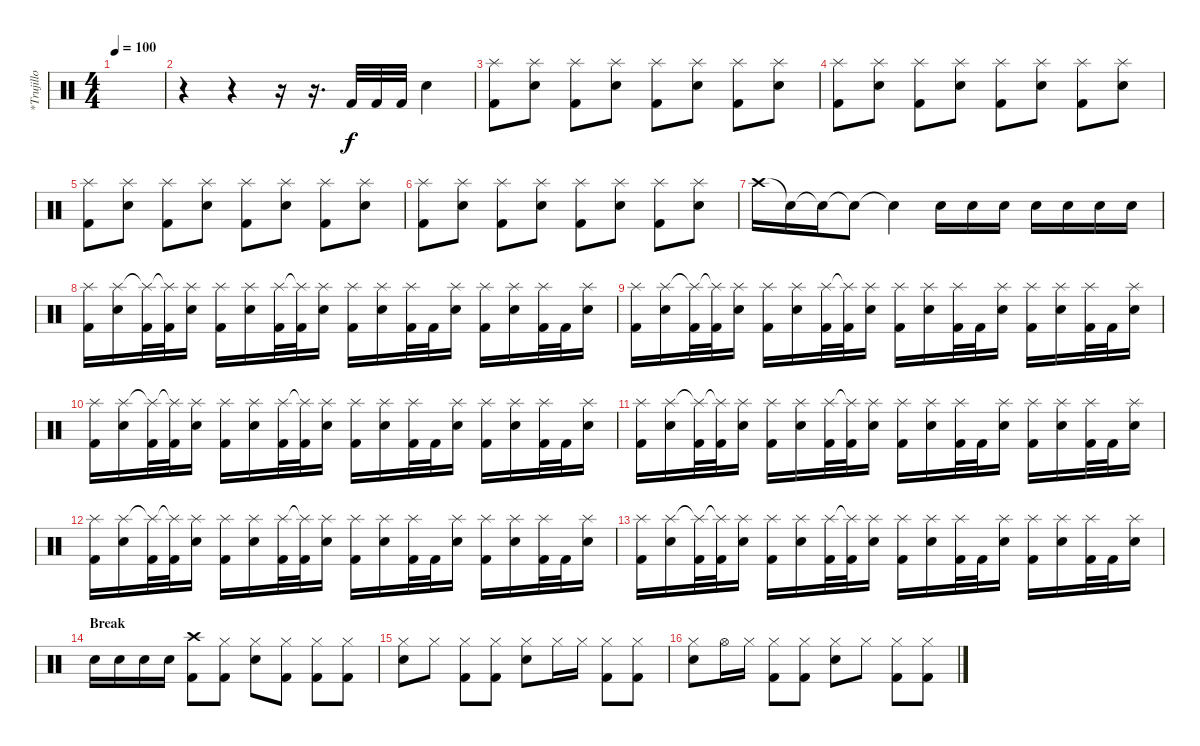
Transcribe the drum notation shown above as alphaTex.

\track ("*Trujillo" "*Trujillo") {instrument percussion}
\staff {score}
\articulation defaults
\ts (4 4)
\tempo 100
\clef neutral
\ks c
|
r.4 r.4 r.16 r.16{d} "Kick (hit) 2".32 "Kick (hit) 2".32 "Kick (hit) 2".32 "Electric Snare (hit)".4 |
("Splash (hit)" "Kick (hit) 2").8 ("Splash (hit)" "Electric Snare (hit)").8 ("Splash (hit)" "Kick (hit) 2").8 ("Splash (hit)" "Electric Snare (hit)").8 ("Splash (hit)" "Kick (hit) 2").8 ("Splash (hit)" "Electric Snare (hit)").8 ("Splash (hit)" "Kick (hit) 2").8 ("Splash (hit)" "Electric Snare (hit)").8 |
("Splash (hit)" "Kick (hit) 2").8 ("Splash (hit)" "Electric Snare (hit)").8 ("Splash (hit)" "Kick (hit) 2").8 ("Splash (hit)" "Electric Snare (hit)").8 ("Splash (hit)" "Kick (hit) 2").8 ("Splash (hit)" "Electric Snare (hit)").8 ("Splash (hit)" "Kick (hit) 2").8 ("Splash (hit)" "Electric Snare (hit)").8 |
("Splash (hit)" "Kick (hit) 2").8 ("Splash (hit)" "Electric Snare (hit)").8 ("Splash (hit)" "Kick (hit) 2").8 ("Splash (hit)" "Electric Snare (hit)").8 ("Splash (hit)" "Kick (hit) 2").8 ("Splash (hit)" "Electric Snare (hit)").8 ("Splash (hit)" "Kick (hit) 2").8 ("Splash (hit)" "Electric Snare (hit)").8 |
("Splash (hit)" "Kick (hit) 2").8 ("Splash (hit)" "Electric Snare (hit)").8 ("Splash (hit)" "Kick (hit) 2").8 ("Splash (hit)" "Electric Snare (hit)").8 ("Splash (hit)" "Kick (hit) 2").8 ("Splash (hit)" "Electric Snare (hit)").8 ("Splash (hit)" "Kick (hit) 2").8 ("Splash (hit)" "Electric Snare (hit)").8 |
"Crash high (hit)".16 "Snare (hit)"{t}.16 "Snare (hit)"{t}.16 "Snare (hit)"{t}.8 "Snare (hit)"{t}.4 "Electric Snare (hit)".16 "Electric Snare (hit)".16 "Electric Snare (hit)".16 "Electric Snare (hit)".16 "Electric Snare (hit)".16 "Electric Snare (hit)".16 "Electric Snare (hit)".16 |
("Splash (hit)" "Kick (hit) 2").16 ("Splash (hit)" "Electric Snare (hit)").16 ("Splash (hit)"{t} "Kick (hit) 2").32 ("Splash (hit)"{t} "Kick (hit) 2").32 ("Splash (hit)" "Electric Snare (hit)").16 ("Splash (hit)" "Kick (hit) 2").16 ("Splash (hit)" "Electric Snare (hit)").16 ("Splash (hit)" "Kick (hit) 2").32 ("Splash (hit)"{t} "Kick (hit) 2").32 ("Splash (hit)" "Electric Snare (hit)").16 ("Splash (hit)" "Kick (hit) 2").16 ("Splash (hit)" "Electric Snare (hit)").16 ("Splash (hit)" "Kick (hit) 2").32 "Kick (hit) 2".32 ("Splash (hit)" "Electric Snare (hit)").16 ("Kick (hit) 2" "Splash (hit)").16 ("Splash (hit)" "Electric Snare (hit)").16 ("Splash (hit)" "Kick (hit) 2").32 "Kick (hit) 2".32 ("Splash (hit)" "Electric Snare (hit)").16 |
("Splash (hit)" "Kick (hit) 2").16 ("Splash (hit)" "Electric Snare (hit)").16 ("Splash (hit)"{t} "Kick (hit) 2").32 ("Splash (hit)"{t} "Kick (hit) 2").32 ("Splash (hit)" "Electric Snare (hit)").16 ("Splash (hit)" "Kick (hit) 2").16 ("Splash (hit)" "Electric Snare (hit)").16 ("Splash (hit)" "Kick (hit) 2").32 ("Splash (hit)"{t} "Kick (hit) 2").32 ("Splash (hit)" "Electric Snare (hit)").16 ("Splash (hit)" "Kick (hit) 2").16 ("Splash (hit)" "Electric Snare (hit)").16 ("Splash (hit)" "Kick (hit) 2").32 "Kick (hit) 2".32 ("Splash (hit)" "Electric Snare (hit)").16 ("Kick (hit) 2" "Splash (hit)").16 ("Splash (hit)" "Electric Snare (hit)").16 ("Splash (hit)" "Kick (hit) 2").32 "Kick (hit) 2".32 ("Splash (hit)" "Electric Snare (hit)").16 |
("Splash (hit)" "Kick (hit) 2").16 ("Splash (hit)" "Electric Snare (hit)").16 ("Splash (hit)"{t} "Kick (hit) 2").32 ("Splash (hit)"{t} "Kick (hit) 2").32 ("Splash (hit)" "Electric Snare (hit)").16 ("Splash (hit)" "Kick (hit) 2").16 ("Splash (hit)" "Electric Snare (hit)").16 ("Splash (hit)" "Kick (hit) 2").32 ("Splash (hit)"{t} "Kick (hit) 2").32 ("Splash (hit)" "Electric Snare (hit)").16 ("Splash (hit)" "Kick (hit) 2").16 ("Splash (hit)" "Electric Snare (hit)").16 ("Splash (hit)" "Kick (hit) 2").32 "Kick (hit) 2".32 ("Splash (hit)" "Electric Snare (hit)").16 ("Kick (hit) 2" "Splash (hit)").16 ("Splash (hit)" "Electric Snare (hit)").16 ("Splash (hit)" "Kick (hit) 2").32 "Kick (hit) 2".32 ("Splash (hit)" "Electric Snare (hit)").16 |
("Splash (hit)" "Kick (hit) 2").16 ("Splash (hit)" "Electric Snare (hit)").16 ("Splash (hit)"{t} "Kick (hit) 2").32 ("Splash (hit)"{t} "Kick (hit) 2").32 ("Splash (hit)" "Electric Snare (hit)").16 ("Splash (hit)" "Kick (hit) 2").16 ("Splash (hit)" "Electric Snare (hit)").16 ("Splash (hit)" "Kick (hit) 2").32 ("Splash (hit)"{t} "Kick (hit) 2").32 ("Splash (hit)" "Electric Snare (hit)").16 ("Splash (hit)" "Kick (hit) 2").16 ("Splash (hit)" "Electric Snare (hit)").16 ("Splash (hit)" "Kick (hit) 2").32 "Kick (hit) 2".32 ("Splash (hit)" "Electric Snare (hit)").16 ("Kick (hit) 2" "Splash (hit)").16 ("Splash (hit)" "Electric Snare (hit)").16 ("Splash (hit)" "Kick (hit) 2").32 "Kick (hit) 2".32 ("Splash (hit)" "Electric Snare (hit)").16 |
("Splash (hit)" "Kick (hit) 2").16 ("Splash (hit)" "Electric Snare (hit)").16 ("Splash (hit)"{t} "Kick (hit) 2").32 ("Splash (hit)"{t} "Kick (hit) 2").32 ("Splash (hit)" "Electric Snare (hit)").16 ("Splash (hit)" "Kick (hit) 2").16 ("Splash (hit)" "Electric Snare (hit)").16 ("Splash (hit)" "Kick (hit) 2").32 ("Splash (hit)"{t} "Kick (hit) 2").32 ("Splash (hit)" "Electric Snare (hit)").16 ("Splash (hit)" "Kick (hit) 2").16 ("Splash (hit)" "Electric Snare (hit)").16 ("Splash (hit)" "Kick (hit) 2").32 "Kick (hit) 2".32 ("Splash (hit)" "Electric Snare (hit)").16 ("Kick (hit) 2" "Splash (hit)").16 ("Splash (hit)" "Electric Snare (hit)").16 ("Splash (hit)" "Kick (hit) 2").32 "Kick (hit) 2".32 ("Splash (hit)" "Electric Snare (hit)").16 |
("Splash (hit)" "Kick (hit) 2").16 ("Splash (hit)" "Electric Snare (hit)").16 ("Splash (hit)"{t} "Kick (hit) 2").32 ("Splash (hit)"{t} "Kick (hit) 2").32 ("Splash (hit)" "Electric Snare (hit)").16 ("Splash (hit)" "Kick (hit) 2").16 ("Splash (hit)" "Electric Snare (hit)").16 ("Splash (hit)" "Kick (hit) 2").32 ("Splash (hit)"{t} "Kick (hit) 2").32 ("Splash (hit)" "Electric Snare (hit)").16 ("Splash (hit)" "Kick (hit) 2").16 ("Splash (hit)" "Electric Snare (hit)").16 ("Splash (hit)" "Kick (hit) 2").32 "Kick (hit) 2".32 ("Splash (hit)" "Electric Snare (hit)").16 ("Kick (hit) 2" "Splash (hit)").16 ("Splash (hit)" "Electric Snare (hit)").16 ("Splash (hit)" "Kick (hit) 2").32 "Kick (hit) 2".32 ("Splash (hit)" "Electric Snare (hit)").16 |
\section ("" "Break")
"Electric Snare (hit)".16 "Electric Snare (hit)".16 "Electric Snare (hit)".16 "Electric Snare (hit)".16 ("Crash high (hit)" "Kick (hit) 2").8 ("Hi-Hat (closed)" "Kick (hit) 2").8 ("Hi-Hat (closed)" "Electric Snare (hit)").8 ("Hi-Hat (closed)" "Kick (hit) 2"{x}).8 ("Hi-Hat (closed)" "Kick (hit) 2").8 ("Hi-Hat (closed)" "Kick (hit) 2").8 |
("Hi-Hat (closed)" "Electric Snare (hit)").8 "Hi-Hat (closed)".8 ("Hi-Hat (closed)" "Kick (hit) 2").8 ("Hi-Hat (closed)" "Kick (hit) 2").8 ("Hi-Hat (closed)" "Electric Snare (hit)").8 "Hi-Hat (closed)".16 "Hi-Hat (closed)".16 ("Hi-Hat (closed)" "Kick (hit) 2").8 ("Hi-Hat (closed)" "Kick (hit) 2").8 |
("Hi-Hat (closed)" "Electric Snare (hit)").8 "Hi-Hat (open)".16 "Hi-Hat (closed)".16 ("Hi-Hat (closed)" "Kick (hit) 2").8 ("Hi-Hat (closed)" "Kick (hit) 2").8 ("Hi-Hat (closed)" "Electric Snare (hit)").8 "Hi-Hat (closed)".8 ("Hi-Hat (closed)" "Kick (hit) 2").8 ("Hi-Hat (closed)" "Kick (hit) 2").8
